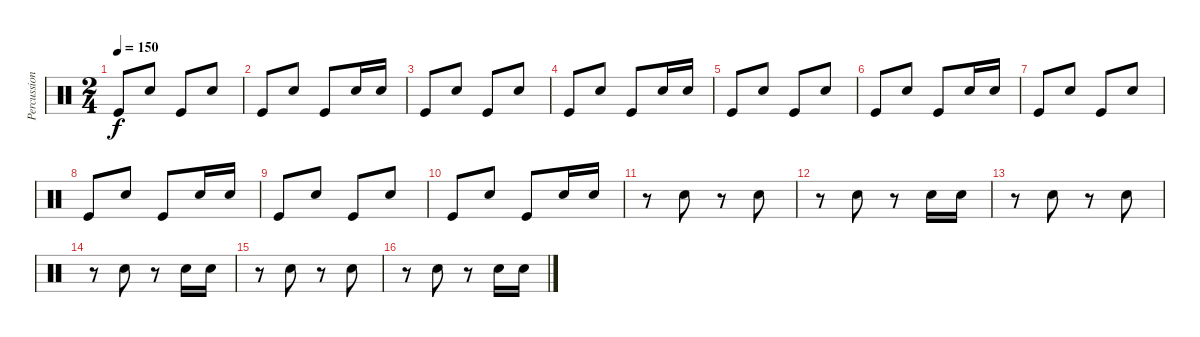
\track ("Percussions" "Percussion") {instrument percussion}
\staff {score}
\articulation defaults
\ts (2 4)
\tempo 150
\clef neutral
\ks c "Kick (hit)".8{dy f} "Electric Snare (hit)".8 "Kick (hit)".8 "Electric Snare (hit)".8
|
"Kick (hit)".8 "Electric Snare (hit)".8 "Kick (hit)".8 "Electric Snare (hit)".16 "Electric Snare (hit)".16 |
"Kick (hit)".8 "Electric Snare (hit)".8 "Kick (hit)".8 "Electric Snare (hit)".8 |
"Kick (hit)".8 "Electric Snare (hit)".8 "Kick (hit)".8 "Electric Snare (hit)".16 "Electric Snare (hit)".16 |
"Kick (hit)".8 "Electric Snare (hit)".8 "Kick (hit)".8 "Electric Snare (hit)".8 |
"Kick (hit)".8 "Electric Snare (hit)".8 "Kick (hit)".8 "Electric Snare (hit)".16 "Electric Snare (hit)".16 |
"Kick (hit)".8 "Electric Snare (hit)".8 "Kick (hit)".8 "Electric Snare (hit)".8 |
"Kick (hit)".8 "Electric Snare (hit)".8 "Kick (hit)".8 "Electric Snare (hit)".16 "Electric Snare (hit)".16 |
"Kick (hit)".8 "Electric Snare (hit)".8 "Kick (hit)".8 "Electric Snare (hit)".8 |
"Kick (hit)".8 "Electric Snare (hit)".8 "Kick (hit)".8 "Electric Snare (hit)".16 "Electric Snare (hit)".16 |
r.8 "Electric Snare (hit)".8 r.8 "Electric Snare (hit)".8 |
r.8 "Electric Snare (hit)".8 r.8 "Electric Snare (hit)".16 "Electric Snare (hit)".16 |
r.8 "Electric Snare (hit)".8 r.8 "Electric Snare (hit)".8 |
r.8 "Electric Snare (hit)".8 r.8 "Electric Snare (hit)".16 "Electric Snare (hit)".16 |
r.8 "Electric Snare (hit)".8 r.8 "Electric Snare (hit)".8 |
r.8 "Electric Snare (hit)".8 r.8 "Electric Snare (hit)".16 "Electric Snare (hit)".16
